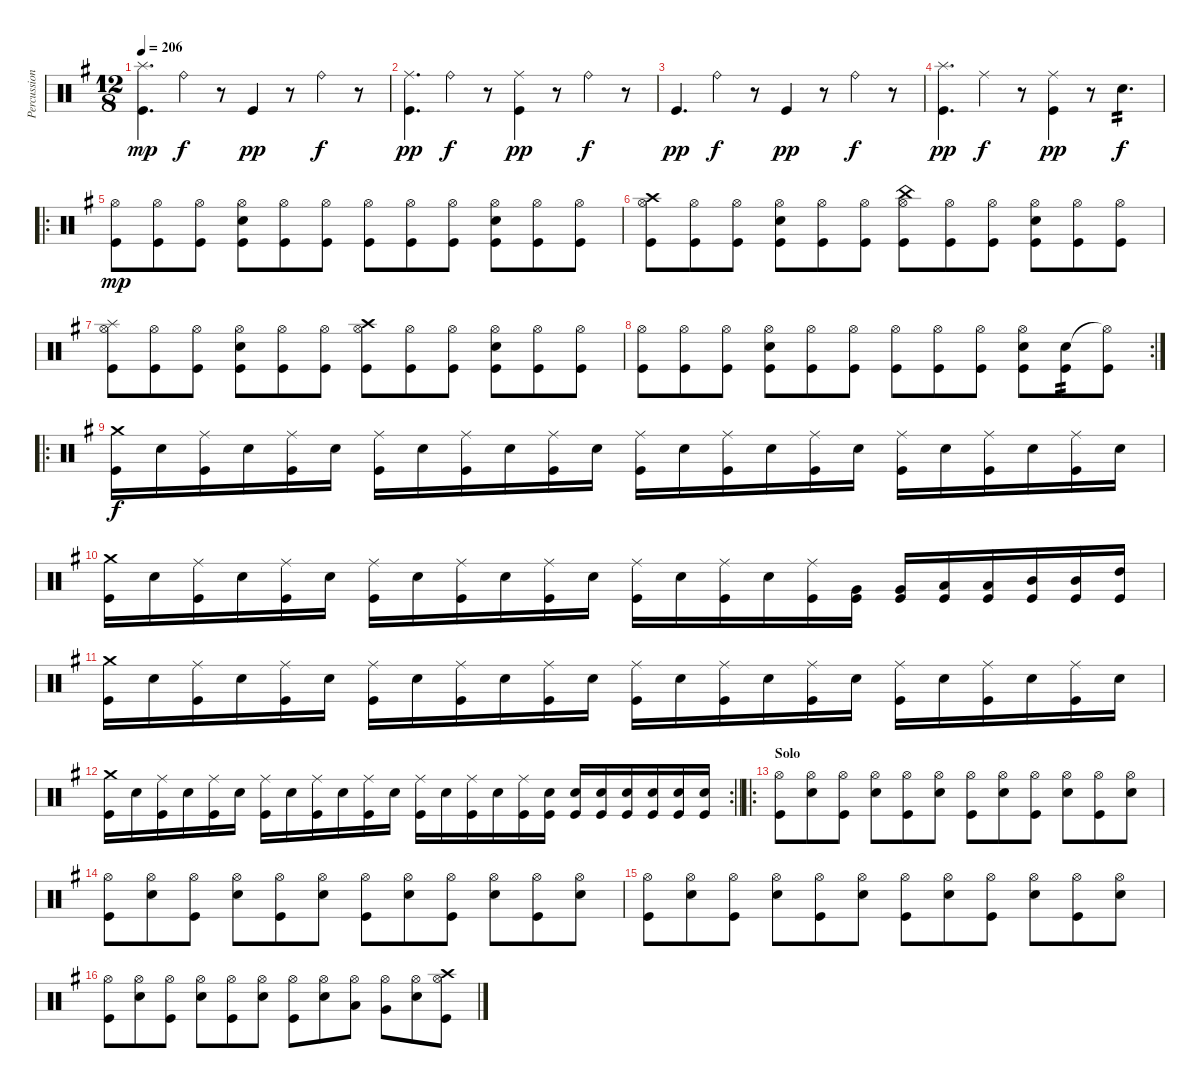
\track ("Percussion" "Percussion") {instrument percussion}
\staff {score}
\articulation defaults
\ts (12 8)
\tempo 206
\clef neutral
\ks g
("Kick (hit)" "Splash (hit)").4{d dy mp} "Ride (bell)".4{dy f} r.8 "Kick (hit)".4{dy pp} r.8 "Ride (bell)".4{dy f} r.8 |
("Kick (hit)" "Ride (middle)").4{d dy pp} "Ride (bell)".4{dy f} r.8 ("Ride (middle)" "Kick (hit)").4{dy pp} r.8 "Ride (bell)".4{dy f} r.8 |
"Kick (hit)".4{d dy pp} "Ride (bell)".4{dy f} r.8 "Kick (hit)".4{dy pp} r.8 "Ride (bell)".4{dy f} r.8 |
("Kick (hit)" "Splash (hit)").4{d dy pp} "Ride (middle)".4{dy f} r.8 ("Kick (hit)" "Ride (middle)").4{dy pp} r.8 "Electric Snare (hit)".4{d tp 2 dy f} |
\ro
("Hi-Hat (open)" "Kick (hit)").8{dy mp} ("Hi-Hat (open)" "Kick (hit)").8 ("Hi-Hat (open)" "Kick (hit)").8 ("Hi-Hat (open)" "Kick (hit)" "Electric Snare (hit)").8 ("Hi-Hat (open)" "Kick (hit)").8 ("Hi-Hat (open)" "Kick (hit)").8 ("Hi-Hat (open)" "Kick (hit)").8 ("Hi-Hat (open)" "Kick (hit)").8 ("Hi-Hat (open)" "Kick (hit)").8 ("Hi-Hat (open)" "Kick (hit)" "Electric Snare (hit)").8 ("Hi-Hat (open)" "Kick (hit)").8 ("Hi-Hat (open)" "Kick (hit)").8 |
("Hi-Hat (open)" "Kick (hit)" "Crash high (hit)").8 ("Hi-Hat (open)" "Kick (hit)").8 ("Hi-Hat (open)" "Kick (hit)").8 ("Hi-Hat (open)" "Kick (hit)" "Electric Snare (hit)").8 ("Hi-Hat (open)" "Kick (hit)").8 ("Hi-Hat (open)" "Kick (hit)").8 ("Hi-Hat (open)" "Kick (hit)" "China (hit)").8 ("Hi-Hat (open)" "Kick (hit)").8 ("Hi-Hat (open)" "Kick (hit)").8 ("Hi-Hat (open)" "Kick (hit)" "Electric Snare (hit)").8 ("Hi-Hat (open)" "Kick (hit)").8 ("Hi-Hat (open)" "Kick (hit)").8 |
("Hi-Hat (open)" "Kick (hit)" "Splash (hit)").8 ("Hi-Hat (open)" "Kick (hit)").8 ("Hi-Hat (open)" "Kick (hit)").8 ("Hi-Hat (open)" "Kick (hit)" "Electric Snare (hit)").8 ("Hi-Hat (open)" "Kick (hit)").8 ("Hi-Hat (open)" "Kick (hit)").8 ("Hi-Hat (open)" "Kick (hit)" "Crash high (hit)").8 ("Hi-Hat (open)" "Kick (hit)").8 ("Hi-Hat (open)" "Kick (hit)").8 ("Hi-Hat (open)" "Kick (hit)" "Electric Snare (hit)").8 ("Hi-Hat (open)" "Kick (hit)").8 ("Hi-Hat (open)" "Kick (hit)").8 |
\rc 2
("Hi-Hat (open)" "Kick (hit)").8 ("Hi-Hat (open)" "Kick (hit)").8 ("Hi-Hat (open)" "Kick (hit)").8 ("Hi-Hat (open)" "Kick (hit)" "Electric Snare (hit)").8 ("Hi-Hat (open)" "Kick (hit)").8 ("Hi-Hat (open)" "Kick (hit)").8 ("Hi-Hat (open)" "Kick (hit)").8 ("Hi-Hat (open)" "Kick (hit)").8 ("Hi-Hat (open)" "Kick (hit)").8 ("Hi-Hat (open)" "Kick (hit)" "Electric Snare (hit)").8 ("Electric Snare (hit)" "Kick (hit)").8{tp 2} ("Hi-Hat (open)"{t} "Kick (hit)").8 |
\ro
("Kick (hit)" "Crash medium (hit)").16{dy f} "Electric Snare (hit)".16 ("Kick (hit)" "Ride (middle)").16 "Electric Snare (hit)".16 ("Kick (hit)" "Ride (middle)").16 "Electric Snare (hit)".16 ("Kick (hit)" "Ride (middle)").16 "Electric Snare (hit)".16 ("Kick (hit)" "Ride (middle)").16 "Electric Snare (hit)".16 ("Kick (hit)" "Ride (middle)").16 "Electric Snare (hit)".16 ("Kick (hit)" "Ride (middle)").16 "Electric Snare (hit)".16 ("Kick (hit)" "Ride (middle)").16 "Electric Snare (hit)".16 ("Kick (hit)" "Ride (middle)").16 "Electric Snare (hit)".16 ("Kick (hit)" "Ride (middle)").16 "Electric Snare (hit)".16 ("Kick (hit)" "Ride (middle)").16 "Electric Snare (hit)".16 ("Kick (hit)" "Ride (middle)").16 "Electric Snare (hit)".16 |
("Kick (hit)" "Crash medium (hit)").16 "Electric Snare (hit)".16 ("Kick (hit)" "Ride (middle)").16 "Electric Snare (hit)".16 ("Kick (hit)" "Ride (middle)").16 "Electric Snare (hit)".16 ("Kick (hit)" "Ride (middle)").16 "Electric Snare (hit)".16 ("Kick (hit)" "Ride (middle)").16 "Electric Snare (hit)".16 ("Kick (hit)" "Ride (middle)").16 "Electric Snare (hit)".16 ("Kick (hit)" "Ride (middle)").16 "Electric Snare (hit)".16 ("Kick (hit)" "Ride (middle)").16 "Electric Snare (hit)".16 ("Kick (hit)" "Ride (middle)").16 ("Kick (hit)" "Very Low Tom (hit)").16 ("Kick (hit)" "Very Low Tom (hit)").16 ("Kick (hit)" "Low Tom (hit)").16 ("Kick (hit)" "Low Tom (hit)").16 ("Kick (hit)" "Mid Tom (hit)").16 ("Kick (hit)" "Mid Tom (hit)").16 ("Kick (hit)" "High Tom (hit)").16 |
("Kick (hit)" "Crash medium (hit)").16 "Electric Snare (hit)".16 ("Kick (hit)" "Ride (middle)").16 "Electric Snare (hit)".16 ("Kick (hit)" "Ride (middle)").16 "Electric Snare (hit)".16 ("Kick (hit)" "Ride (middle)").16 "Electric Snare (hit)".16 ("Kick (hit)" "Ride (middle)").16 "Electric Snare (hit)".16 ("Kick (hit)" "Ride (middle)").16 "Electric Snare (hit)".16 ("Kick (hit)" "Ride (middle)").16 "Electric Snare (hit)".16 ("Kick (hit)" "Ride (middle)").16 "Electric Snare (hit)".16 ("Kick (hit)" "Ride (middle)").16 "Electric Snare (hit)".16 ("Kick (hit)" "Ride (middle)").16 "Electric Snare (hit)".16 ("Kick (hit)" "Ride (middle)").16 "Electric Snare (hit)".16 ("Kick (hit)" "Ride (middle)").16 "Electric Snare (hit)".16 |
\rc 2
\barLineRight lightlight
("Kick (hit)" "Crash medium (hit)").16 "Electric Snare (hit)".16 ("Kick (hit)" "Ride (middle)").16 "Electric Snare (hit)".16 ("Kick (hit)" "Ride (middle)").16 "Electric Snare (hit)".16 ("Kick (hit)" "Ride (middle)").16 "Electric Snare (hit)".16 ("Kick (hit)" "Ride (middle)").16 "Electric Snare (hit)".16 ("Kick (hit)" "Ride (middle)").16 "Electric Snare (hit)".16 ("Kick (hit)" "Ride (middle)").16 "Electric Snare (hit)".16 ("Kick (hit)" "Ride (middle)").16 "Electric Snare (hit)".16 ("Kick (hit)" "Ride (middle)").16 ("Kick (hit)" "Electric Snare (hit)").16 ("Kick (hit)" "Electric Snare (hit)").16 ("Kick (hit)" "Electric Snare (hit)").16 ("Kick (hit)" "Electric Snare (hit)").16 ("Kick (hit)" "Electric Snare (hit)").16 ("Kick (hit)" "Electric Snare (hit)").16 ("Kick (hit)" "Electric Snare (hit)").16 |
\ro
\section ("" "Solo")
("Kick (hit)" "Hi-Hat (open)").8 ("Electric Snare (hit)" "Hi-Hat (open)").8 ("Kick (hit)" "Hi-Hat (open)").8 ("Electric Snare (hit)" "Hi-Hat (open)").8 ("Kick (hit)" "Hi-Hat (open)").8 ("Electric Snare (hit)" "Hi-Hat (open)").8 ("Kick (hit)" "Hi-Hat (open)").8 ("Electric Snare (hit)" "Hi-Hat (open)").8 ("Kick (hit)" "Hi-Hat (open)").8 ("Electric Snare (hit)" "Hi-Hat (open)").8 ("Kick (hit)" "Hi-Hat (open)").8 ("Electric Snare (hit)" "Hi-Hat (open)").8 |
("Kick (hit)" "Hi-Hat (open)").8 ("Electric Snare (hit)" "Hi-Hat (open)").8 ("Kick (hit)" "Hi-Hat (open)").8 ("Electric Snare (hit)" "Hi-Hat (open)").8 ("Kick (hit)" "Hi-Hat (open)").8 ("Electric Snare (hit)" "Hi-Hat (open)").8 ("Kick (hit)" "Hi-Hat (open)").8 ("Electric Snare (hit)" "Hi-Hat (open)").8 ("Kick (hit)" "Hi-Hat (open)").8 ("Electric Snare (hit)" "Hi-Hat (open)").8 ("Kick (hit)" "Hi-Hat (open)").8 ("Electric Snare (hit)" "Hi-Hat (open)").8 |
("Kick (hit)" "Hi-Hat (open)").8 ("Electric Snare (hit)" "Hi-Hat (open)").8 ("Kick (hit)" "Hi-Hat (open)").8 ("Electric Snare (hit)" "Hi-Hat (open)").8 ("Kick (hit)" "Hi-Hat (open)").8 ("Electric Snare (hit)" "Hi-Hat (open)").8 ("Kick (hit)" "Hi-Hat (open)").8 ("Electric Snare (hit)" "Hi-Hat (open)").8 ("Kick (hit)" "Hi-Hat (open)").8 ("Electric Snare (hit)" "Hi-Hat (open)").8 ("Kick (hit)" "Hi-Hat (open)").8 ("Electric Snare (hit)" "Hi-Hat (open)").8 |
("Kick (hit)" "Hi-Hat (open)").8 ("Electric Snare (hit)" "Hi-Hat (open)").8 ("Kick (hit)" "Hi-Hat (open)").8 ("Electric Snare (hit)" "Hi-Hat (open)").8 ("Kick (hit)" "Hi-Hat (open)").8 ("Electric Snare (hit)" "Hi-Hat (open)").8 ("Kick (hit)" "Hi-Hat (open)").8 ("Electric Snare (hit)" "Hi-Hat (open)").8 ("Low Tom (hit)" "Hi-Hat (open)").8 ("Very Low Tom (hit)" "Hi-Hat (open)").8 ("Electric Snare (hit)" "Hi-Hat (open)").8 ("Kick (hit)" "Crash high (hit)" "Hi-Hat (open)").8
